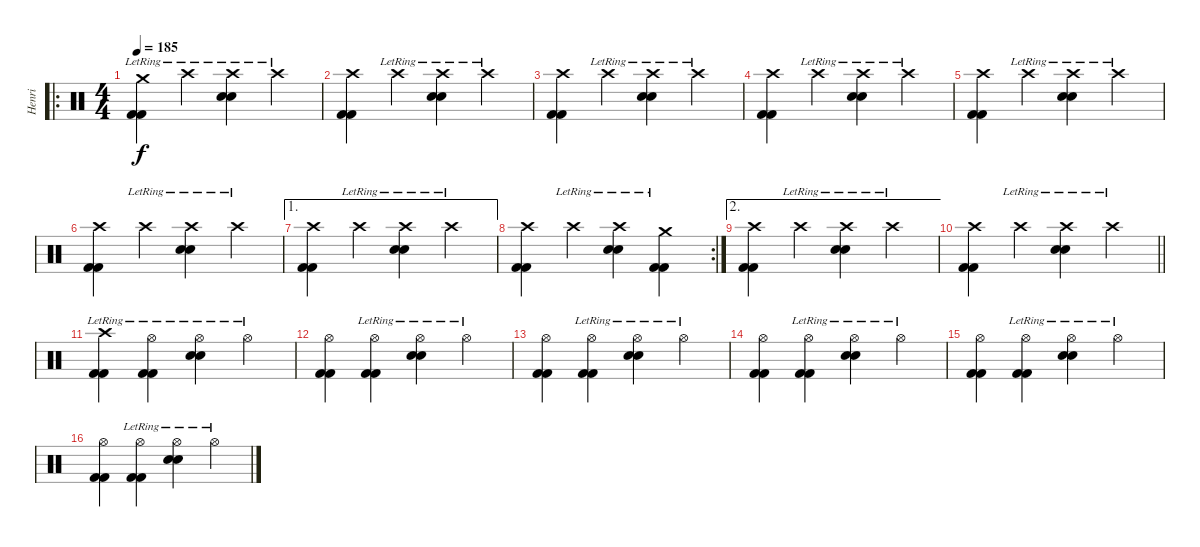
\track ("Henri" "Henri") {instrument percussion}
\staff {score}
\articulation defaults
\ro
\ts (4 4)
\tempo 185
\clef neutral
\ks c
("Crash medium (hit)"{lr} "Kick (hit) 2" "Kick (hit) 2").4{dy f} "Crash high (hit)"{lr}.4 ("Crash high (hit)"{lr} "Snare (hit) 2" "Snare (hit) 2").4 "Crash high (hit)"{lr}.4 |
("Crash high (hit)" "Kick (hit) 2" "Kick (hit) 2").4 "Crash high (hit)"{lr}.4 ("Crash high (hit)"{lr} "Snare (hit) 2" "Snare (hit) 2").4 "Crash high (hit)"{lr}.4 |
("Crash high (hit)" "Kick (hit) 2" "Kick (hit) 2").4 "Crash high (hit)"{lr}.4 ("Crash high (hit)"{lr} "Snare (hit) 2" "Snare (hit) 2").4 "Crash high (hit)"{lr}.4 |
("Crash high (hit)" "Kick (hit) 2" "Kick (hit) 2").4 "Crash high (hit)"{lr}.4 ("Crash high (hit)"{lr} "Snare (hit) 2" "Snare (hit) 2").4 "Crash high (hit)"{lr}.4 |
("Crash high (hit)" "Kick (hit) 2" "Kick (hit) 2").4 "Crash high (hit)"{lr}.4 ("Crash high (hit)"{lr} "Snare (hit) 2" "Snare (hit) 2").4 "Crash high (hit)"{lr}.4 |
("Crash high (hit)" "Kick (hit) 2" "Kick (hit) 2").4 "Crash high (hit)"{lr}.4 ("Crash high (hit)"{lr} "Snare (hit) 2" "Snare (hit) 2").4 "Crash high (hit)"{lr}.4 |
\ae 1
("Crash high (hit)" "Kick (hit) 2" "Kick (hit) 2").4 "Crash high (hit)"{lr}.4 ("Crash high (hit)"{lr} "Snare (hit) 2" "Snare (hit) 2").4 "Crash high (hit)"{lr}.4 |
\rc 2
("Crash high (hit)" "Kick (hit) 2" "Kick (hit) 2").4 "Crash high (hit)"{lr}.4 ("Crash high (hit)"{lr} "Snare (hit) 2" "Snare (hit) 2").4 ("Crash medium (hit)"{lr} "Kick (hit) 2" "Kick (hit) 2").4 |
\ae 2
("Crash high (hit)" "Kick (hit) 2" "Kick (hit) 2").4 "Crash high (hit)"{lr}.4 ("Crash high (hit)"{lr} "Snare (hit) 2" "Snare (hit) 2").4 "Crash high (hit)"{lr}.4 |
\barLineRight lightlight
("Crash high (hit)" "Kick (hit) 2" "Kick (hit) 2").4 "Crash high (hit)"{lr}.4 ("Crash high (hit)"{lr} "Snare (hit) 2" "Snare (hit) 2").4 "Crash high (hit)"{lr}.4 |
("Crash high (hit)"{lr} "Kick (hit) 2" "Kick (hit) 2").4 ("Hi-Hat (open)"{lr} "Kick (hit) 2" "Kick (hit) 2").4 ("Hi-Hat (open)"{lr} "Snare (hit) 2" "Snare (hit) 2").4 "Hi-Hat (open)"{lr}.4 |
("Hi-Hat (open)" "Kick (hit) 2" "Kick (hit) 2").4 ("Hi-Hat (open)"{lr} "Kick (hit) 2" "Kick (hit) 2").4 ("Hi-Hat (open)"{lr} "Snare (hit) 2" "Snare (hit) 2").4 "Hi-Hat (open)"{lr}.4 |
("Hi-Hat (open)" "Kick (hit) 2" "Kick (hit) 2").4 ("Hi-Hat (open)"{lr} "Kick (hit) 2" "Kick (hit) 2").4 ("Hi-Hat (open)"{lr} "Snare (hit) 2" "Snare (hit) 2").4 "Hi-Hat (open)"{lr}.4 |
("Hi-Hat (open)" "Kick (hit) 2" "Kick (hit) 2").4 ("Hi-Hat (open)"{lr} "Kick (hit) 2" "Kick (hit) 2").4 ("Hi-Hat (open)"{lr} "Snare (hit) 2" "Snare (hit) 2").4 "Hi-Hat (open)"{lr}.4 |
("Hi-Hat (open)" "Kick (hit) 2" "Kick (hit) 2").4 ("Hi-Hat (open)"{lr} "Kick (hit) 2" "Kick (hit) 2").4 ("Hi-Hat (open)"{lr} "Snare (hit) 2" "Snare (hit) 2").4 "Hi-Hat (open)"{lr}.4 |
("Hi-Hat (open)" "Kick (hit) 2" "Kick (hit) 2").4 ("Hi-Hat (open)"{lr} "Kick (hit) 2" "Kick (hit) 2").4 ("Hi-Hat (open)"{lr} "Snare (hit) 2" "Snare (hit) 2").4 "Hi-Hat (open)"{lr}.4
